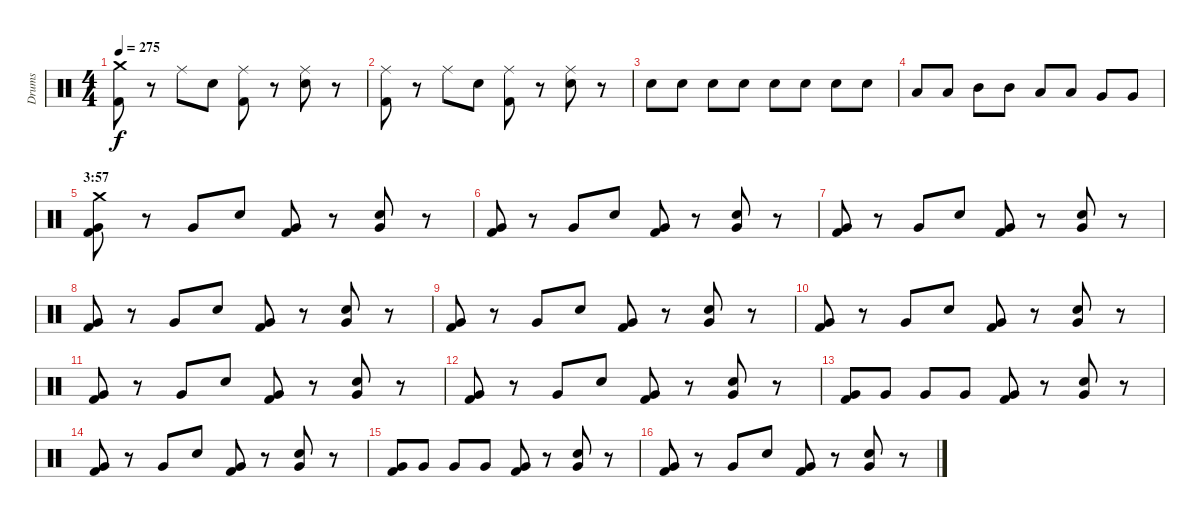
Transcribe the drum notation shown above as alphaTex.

\track ("Drums" "Drums") {instrument percussion}
\staff {score}
\articulation defaults
\ts (4 4)
\tempo 275
\clef neutral
\ks c
("Crash medium (hit)" "Kick (hit) 2").8{dy f} r.8 "Ride (middle)".8 "Electric Snare (hit)".8 ("Ride (middle)" "Kick (hit) 2").8 r.8 ("Ride (middle)" "Electric Snare (hit)").8 r.8 |
("Ride (middle)" "Kick (hit) 2").8 r.8 "Ride (middle)".8 "Electric Snare (hit)".8 ("Ride (middle)" "Kick (hit) 2").8 r.8 ("Ride (middle)" "Electric Snare (hit)").8 r.8 |
"Electric Snare (hit)".8 "Electric Snare (hit)".8 "Electric Snare (hit)".8 "Electric Snare (hit)".8 "Electric Snare (hit)".8 "Electric Snare (hit)".8 "Electric Snare (hit)".8 "Electric Snare (hit)".8 |
"Low Tom (hit)".8 "Low Tom (hit)".8 "Mid Tom (hit)".8 "Mid Tom (hit)".8 "Low Tom (hit)".8 "Low Tom (hit)".8 "Very Low Tom (hit)".8 "Very Low Tom (hit)".8 |
\section ("" "3:57")
("Crash medium (hit)" "Very Low Tom (hit)" "Kick (hit) 2").8 r.8 "Very Low Tom (hit)".8 "Electric Snare (hit)".8 ("Very Low Tom (hit)" "Kick (hit) 2").8 r.8 ("Very Low Tom (hit)" "Electric Snare (hit)").8 r.8 |
("Very Low Tom (hit)" "Kick (hit) 2").8 r.8 "Very Low Tom (hit)".8 "Electric Snare (hit)".8 ("Very Low Tom (hit)" "Kick (hit) 2").8 r.8 ("Very Low Tom (hit)" "Electric Snare (hit)").8 r.8 |
("Very Low Tom (hit)" "Kick (hit) 2").8 r.8 "Very Low Tom (hit)".8 "Electric Snare (hit)".8 ("Very Low Tom (hit)" "Kick (hit) 2").8 r.8 ("Very Low Tom (hit)" "Electric Snare (hit)").8 r.8 |
("Very Low Tom (hit)" "Kick (hit) 2").8 r.8 "Very Low Tom (hit)".8 "Electric Snare (hit)".8 ("Very Low Tom (hit)" "Kick (hit) 2").8 r.8 ("Very Low Tom (hit)" "Electric Snare (hit)").8 r.8 |
("Very Low Tom (hit)" "Kick (hit) 2").8 r.8 "Very Low Tom (hit)".8 "Electric Snare (hit)".8 ("Very Low Tom (hit)" "Kick (hit) 2").8 r.8 ("Very Low Tom (hit)" "Electric Snare (hit)").8 r.8 |
("Very Low Tom (hit)" "Kick (hit) 2").8 r.8 "Very Low Tom (hit)".8 "Electric Snare (hit)".8 ("Very Low Tom (hit)" "Kick (hit) 2").8 r.8 ("Very Low Tom (hit)" "Electric Snare (hit)").8 r.8 |
("Very Low Tom (hit)" "Kick (hit) 2").8 r.8 "Very Low Tom (hit)".8 "Electric Snare (hit)".8 ("Very Low Tom (hit)" "Kick (hit) 2").8 r.8 ("Very Low Tom (hit)" "Electric Snare (hit)").8 r.8 |
("Very Low Tom (hit)" "Kick (hit) 2").8 r.8 "Very Low Tom (hit)".8 "Electric Snare (hit)".8 ("Very Low Tom (hit)" "Kick (hit) 2").8 r.8 ("Very Low Tom (hit)" "Electric Snare (hit)").8 r.8 |
("Very Low Tom (hit)" "Kick (hit) 2").8 "Very Low Tom (hit)".8 "Very Low Tom (hit)".8 "Very Low Tom (hit)".8 ("Very Low Tom (hit)" "Kick (hit) 2").8 r.8 ("Very Low Tom (hit)" "Electric Snare (hit)").8 r.8 |
("Very Low Tom (hit)" "Kick (hit) 2").8 r.8 "Very Low Tom (hit)".8 "Electric Snare (hit)".8 ("Very Low Tom (hit)" "Kick (hit) 2").8 r.8 ("Very Low Tom (hit)" "Electric Snare (hit)").8 r.8 |
("Very Low Tom (hit)" "Kick (hit) 2").8 "Very Low Tom (hit)".8 "Very Low Tom (hit)".8 "Very Low Tom (hit)".8 ("Very Low Tom (hit)" "Kick (hit) 2").8 r.8 ("Very Low Tom (hit)" "Electric Snare (hit)").8 r.8 |
("Very Low Tom (hit)" "Kick (hit) 2").8 r.8 "Very Low Tom (hit)".8 "Electric Snare (hit)".8 ("Very Low Tom (hit)" "Kick (hit) 2").8 r.8 ("Very Low Tom (hit)" "Electric Snare (hit)").8 r.8
